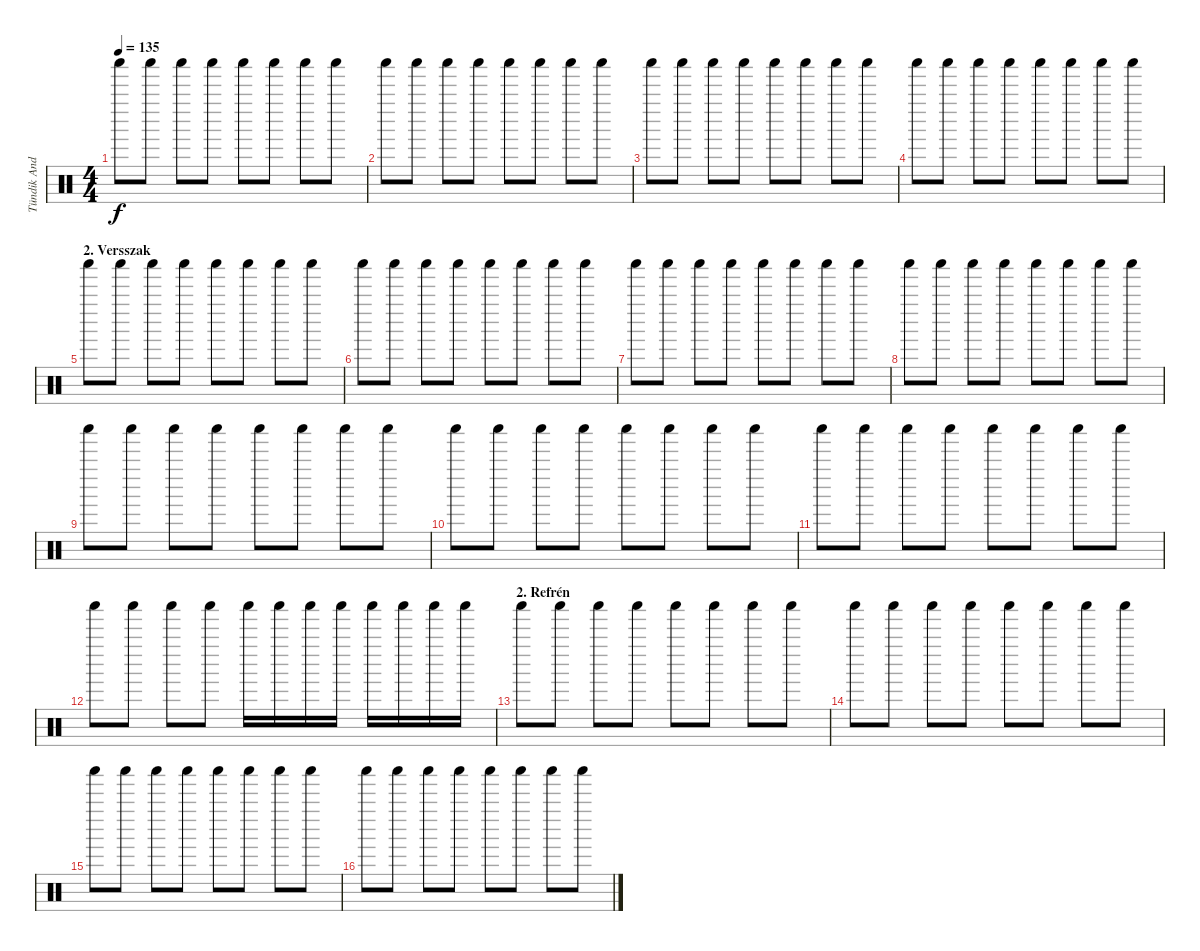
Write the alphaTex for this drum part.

\track ("Tündik András - Shaker" "Tündik And") {instrument percussion}
\staff {score}
\articulation defaults
\ts (4 4)
\tempo 135
\clef neutral
\ks c "Shaker (hit)".8{dy f} "Shaker (hit)".8 "Shaker (hit)".8 "Shaker (hit)".8 "Shaker (hit)".8 "Shaker (hit)".8 "Shaker (hit)".8 "Shaker (hit)".8
|
"Shaker (hit)".8 "Shaker (hit)".8 "Shaker (hit)".8 "Shaker (hit)".8 "Shaker (hit)".8 "Shaker (hit)".8 "Shaker (hit)".8 "Shaker (hit)".8 |
"Shaker (hit)".8 "Shaker (hit)".8 "Shaker (hit)".8 "Shaker (hit)".8 "Shaker (hit)".8 "Shaker (hit)".8 "Shaker (hit)".8 "Shaker (hit)".8 |
"Shaker (hit)".8 "Shaker (hit)".8 "Shaker (hit)".8 "Shaker (hit)".8 "Shaker (hit)".8 "Shaker (hit)".8 "Shaker (hit)".8 "Shaker (hit)".8 |
\section ("" "2. Versszak")
"Shaker (hit)".8 "Shaker (hit)".8 "Shaker (hit)".8 "Shaker (hit)".8 "Shaker (hit)".8 "Shaker (hit)".8 "Shaker (hit)".8 "Shaker (hit)".8 |
"Shaker (hit)".8 "Shaker (hit)".8 "Shaker (hit)".8 "Shaker (hit)".8 "Shaker (hit)".8 "Shaker (hit)".8 "Shaker (hit)".8 "Shaker (hit)".8 |
"Shaker (hit)".8 "Shaker (hit)".8 "Shaker (hit)".8 "Shaker (hit)".8 "Shaker (hit)".8 "Shaker (hit)".8 "Shaker (hit)".8 "Shaker (hit)".8 |
"Shaker (hit)".8 "Shaker (hit)".8 "Shaker (hit)".8 "Shaker (hit)".8 "Shaker (hit)".8 "Shaker (hit)".8 "Shaker (hit)".8 "Shaker (hit)".8 |
"Shaker (hit)".8 "Shaker (hit)".8 "Shaker (hit)".8 "Shaker (hit)".8 "Shaker (hit)".8 "Shaker (hit)".8 "Shaker (hit)".8 "Shaker (hit)".8 |
"Shaker (hit)".8 "Shaker (hit)".8 "Shaker (hit)".8 "Shaker (hit)".8 "Shaker (hit)".8 "Shaker (hit)".8 "Shaker (hit)".8 "Shaker (hit)".8 |
"Shaker (hit)".8 "Shaker (hit)".8 "Shaker (hit)".8 "Shaker (hit)".8 "Shaker (hit)".8 "Shaker (hit)".8 "Shaker (hit)".8 "Shaker (hit)".8 |
"Shaker (hit)".8 "Shaker (hit)".8 "Shaker (hit)".8 "Shaker (hit)".8 "Shaker (hit)".16 "Shaker (hit)".16 "Shaker (hit)".16 "Shaker (hit)".16 "Shaker (hit)".16 "Shaker (hit)".16 "Shaker (hit)".16 "Shaker (hit)".16 |
\section ("" "2. Refrén")
"Shaker (hit)".8 "Shaker (hit)".8 "Shaker (hit)".8 "Shaker (hit)".8 "Shaker (hit)".8 "Shaker (hit)".8 "Shaker (hit)".8 "Shaker (hit)".8 |
"Shaker (hit)".8 "Shaker (hit)".8 "Shaker (hit)".8 "Shaker (hit)".8 "Shaker (hit)".8 "Shaker (hit)".8 "Shaker (hit)".8 "Shaker (hit)".8 |
"Shaker (hit)".8 "Shaker (hit)".8 "Shaker (hit)".8 "Shaker (hit)".8 "Shaker (hit)".8 "Shaker (hit)".8 "Shaker (hit)".8 "Shaker (hit)".8 |
"Shaker (hit)".8 "Shaker (hit)".8 "Shaker (hit)".8 "Shaker (hit)".8 "Shaker (hit)".8 "Shaker (hit)".8 "Shaker (hit)".8 "Shaker (hit)".8
